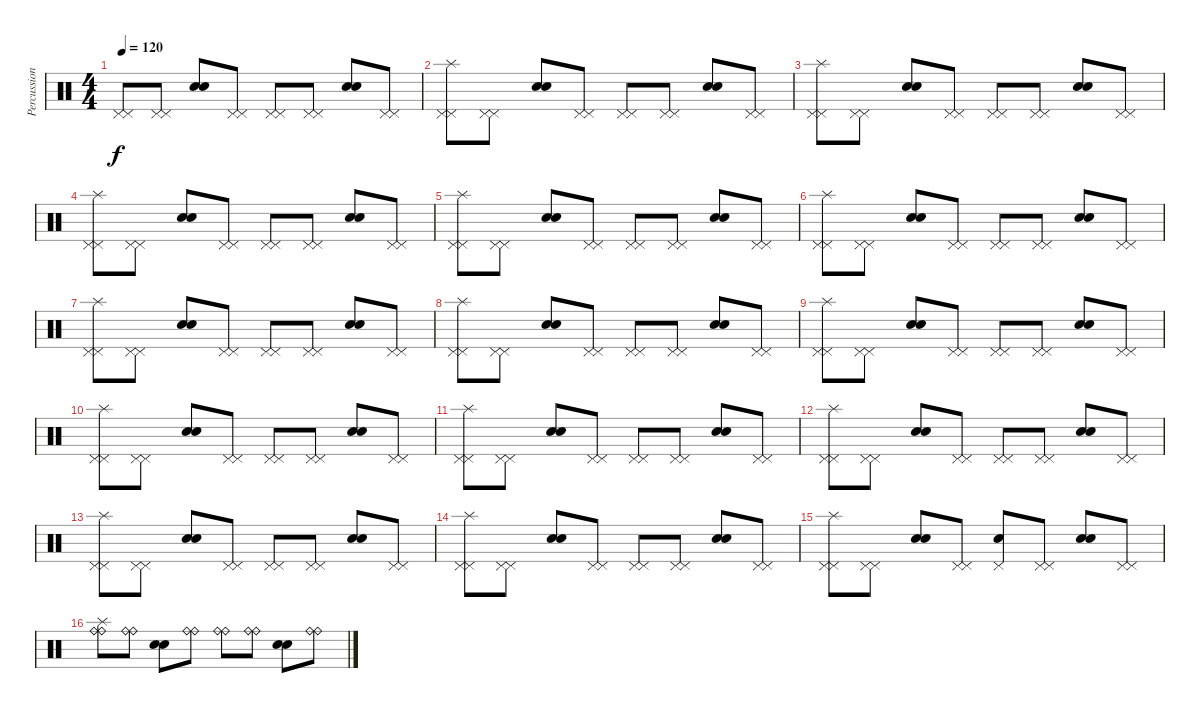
\track ("Percussioni" "Percussion") {instrument percussion}
\staff {score}
\articulation defaults
\ts (4 4)
\tempo 120
\clef neutral
\ks c
("Pedal Hi-Hat (hit)" "Pedal Hi-Hat (hit)").8{dy f} ("Pedal Hi-Hat (hit)" "Pedal Hi-Hat (hit)").8 ("Snare (hit) 2" "Snare (hit) 2").8 ("Pedal Hi-Hat (hit)" "Pedal Hi-Hat (hit)").8 ("Pedal Hi-Hat (hit)" "Pedal Hi-Hat (hit)").8 ("Pedal Hi-Hat (hit)" "Pedal Hi-Hat (hit)").8 ("Snare (hit) 2" "Snare (hit) 2").8 ("Pedal Hi-Hat (hit)" "Pedal Hi-Hat (hit)").8 |
("Splash (hit)" "Pedal Hi-Hat (hit)" "Pedal Hi-Hat (hit)").8 ("Pedal Hi-Hat (hit)" "Pedal Hi-Hat (hit)").8 ("Snare (hit) 2" "Snare (hit) 2").8 ("Pedal Hi-Hat (hit)" "Pedal Hi-Hat (hit)").8 ("Pedal Hi-Hat (hit)" "Pedal Hi-Hat (hit)").8 ("Pedal Hi-Hat (hit)" "Pedal Hi-Hat (hit)").8 ("Snare (hit) 2" "Snare (hit) 2").8 ("Pedal Hi-Hat (hit)" "Pedal Hi-Hat (hit)").8 |
("Splash (hit)" "Pedal Hi-Hat (hit)" "Pedal Hi-Hat (hit)").8 ("Pedal Hi-Hat (hit)" "Pedal Hi-Hat (hit)").8 ("Snare (hit) 2" "Snare (hit) 2").8 ("Pedal Hi-Hat (hit)" "Pedal Hi-Hat (hit)").8 ("Pedal Hi-Hat (hit)" "Pedal Hi-Hat (hit)").8 ("Pedal Hi-Hat (hit)" "Pedal Hi-Hat (hit)").8 ("Snare (hit) 2" "Snare (hit) 2").8 ("Pedal Hi-Hat (hit)" "Pedal Hi-Hat (hit)").8 |
("Splash (hit)" "Pedal Hi-Hat (hit)" "Pedal Hi-Hat (hit)").8 ("Pedal Hi-Hat (hit)" "Pedal Hi-Hat (hit)").8 ("Snare (hit) 2" "Snare (hit) 2").8 ("Pedal Hi-Hat (hit)" "Pedal Hi-Hat (hit)").8 ("Pedal Hi-Hat (hit)" "Pedal Hi-Hat (hit)").8 ("Pedal Hi-Hat (hit)" "Pedal Hi-Hat (hit)").8 ("Snare (hit) 2" "Snare (hit) 2").8 ("Pedal Hi-Hat (hit)" "Pedal Hi-Hat (hit)").8 |
("Splash (hit)" "Pedal Hi-Hat (hit)" "Pedal Hi-Hat (hit)").8 ("Pedal Hi-Hat (hit)" "Pedal Hi-Hat (hit)").8 ("Snare (hit) 2" "Snare (hit) 2").8 ("Pedal Hi-Hat (hit)" "Pedal Hi-Hat (hit)").8 ("Pedal Hi-Hat (hit)" "Pedal Hi-Hat (hit)").8 ("Pedal Hi-Hat (hit)" "Pedal Hi-Hat (hit)").8 ("Snare (hit) 2" "Snare (hit) 2").8 ("Pedal Hi-Hat (hit)" "Pedal Hi-Hat (hit)").8 |
("Splash (hit)" "Pedal Hi-Hat (hit)" "Pedal Hi-Hat (hit)").8 ("Pedal Hi-Hat (hit)" "Pedal Hi-Hat (hit)").8 ("Snare (hit) 2" "Snare (hit) 2").8 ("Pedal Hi-Hat (hit)" "Pedal Hi-Hat (hit)").8 ("Pedal Hi-Hat (hit)" "Pedal Hi-Hat (hit)").8 ("Pedal Hi-Hat (hit)" "Pedal Hi-Hat (hit)").8 ("Snare (hit) 2" "Snare (hit) 2").8 ("Pedal Hi-Hat (hit)" "Pedal Hi-Hat (hit)").8 |
("Splash (hit)" "Pedal Hi-Hat (hit)" "Pedal Hi-Hat (hit)").8 ("Pedal Hi-Hat (hit)" "Pedal Hi-Hat (hit)").8 ("Snare (hit) 2" "Snare (hit) 2").8 ("Pedal Hi-Hat (hit)" "Pedal Hi-Hat (hit)").8 ("Pedal Hi-Hat (hit)" "Pedal Hi-Hat (hit)").8 ("Pedal Hi-Hat (hit)" "Pedal Hi-Hat (hit)").8 ("Snare (hit) 2" "Snare (hit) 2").8 ("Pedal Hi-Hat (hit)" "Pedal Hi-Hat (hit)").8 |
("Splash (hit)" "Pedal Hi-Hat (hit)" "Pedal Hi-Hat (hit)").8 ("Pedal Hi-Hat (hit)" "Pedal Hi-Hat (hit)").8 ("Snare (hit) 2" "Snare (hit) 2").8 ("Pedal Hi-Hat (hit)" "Pedal Hi-Hat (hit)").8 ("Pedal Hi-Hat (hit)" "Pedal Hi-Hat (hit)").8 ("Pedal Hi-Hat (hit)" "Pedal Hi-Hat (hit)").8 ("Snare (hit) 2" "Snare (hit) 2").8 ("Pedal Hi-Hat (hit)" "Pedal Hi-Hat (hit)").8 |
("Splash (hit)" "Pedal Hi-Hat (hit)" "Pedal Hi-Hat (hit)").8 ("Pedal Hi-Hat (hit)" "Pedal Hi-Hat (hit)").8 ("Snare (hit) 2" "Snare (hit) 2").8 ("Pedal Hi-Hat (hit)" "Pedal Hi-Hat (hit)").8 ("Pedal Hi-Hat (hit)" "Pedal Hi-Hat (hit)").8 ("Pedal Hi-Hat (hit)" "Pedal Hi-Hat (hit)").8 ("Snare (hit) 2" "Snare (hit) 2").8 ("Pedal Hi-Hat (hit)" "Pedal Hi-Hat (hit)").8 |
("Splash (hit)" "Pedal Hi-Hat (hit)" "Pedal Hi-Hat (hit)").8 ("Pedal Hi-Hat (hit)" "Pedal Hi-Hat (hit)").8 ("Snare (hit) 2" "Snare (hit) 2").8 ("Pedal Hi-Hat (hit)" "Pedal Hi-Hat (hit)").8 ("Pedal Hi-Hat (hit)" "Pedal Hi-Hat (hit)").8 ("Pedal Hi-Hat (hit)" "Pedal Hi-Hat (hit)").8 ("Snare (hit) 2" "Snare (hit) 2").8 ("Pedal Hi-Hat (hit)" "Pedal Hi-Hat (hit)").8 |
("Splash (hit)" "Pedal Hi-Hat (hit)" "Pedal Hi-Hat (hit)").8 ("Pedal Hi-Hat (hit)" "Pedal Hi-Hat (hit)").8 ("Snare (hit) 2" "Snare (hit) 2").8 ("Pedal Hi-Hat (hit)" "Pedal Hi-Hat (hit)").8 ("Pedal Hi-Hat (hit)" "Pedal Hi-Hat (hit)").8 ("Pedal Hi-Hat (hit)" "Pedal Hi-Hat (hit)").8 ("Snare (hit) 2" "Snare (hit) 2").8 ("Pedal Hi-Hat (hit)" "Pedal Hi-Hat (hit)").8 |
("Splash (hit)" "Pedal Hi-Hat (hit)" "Pedal Hi-Hat (hit)").8 ("Pedal Hi-Hat (hit)" "Pedal Hi-Hat (hit)").8 ("Snare (hit) 2" "Snare (hit) 2").8 ("Pedal Hi-Hat (hit)" "Pedal Hi-Hat (hit)").8 ("Pedal Hi-Hat (hit)" "Pedal Hi-Hat (hit)").8 ("Pedal Hi-Hat (hit)" "Pedal Hi-Hat (hit)").8 ("Snare (hit) 2" "Snare (hit) 2").8 ("Pedal Hi-Hat (hit)" "Pedal Hi-Hat (hit)").8 |
("Splash (hit)" "Pedal Hi-Hat (hit)" "Pedal Hi-Hat (hit)").8 ("Pedal Hi-Hat (hit)" "Pedal Hi-Hat (hit)").8 ("Snare (hit) 2" "Snare (hit) 2").8 ("Pedal Hi-Hat (hit)" "Pedal Hi-Hat (hit)").8 ("Pedal Hi-Hat (hit)" "Pedal Hi-Hat (hit)").8 ("Pedal Hi-Hat (hit)" "Pedal Hi-Hat (hit)").8 ("Snare (hit) 2" "Snare (hit) 2").8 ("Pedal Hi-Hat (hit)" "Pedal Hi-Hat (hit)").8 |
("Splash (hit)" "Pedal Hi-Hat (hit)" "Pedal Hi-Hat (hit)").8 ("Pedal Hi-Hat (hit)" "Pedal Hi-Hat (hit)").8 ("Snare (hit) 2" "Snare (hit) 2").8 ("Pedal Hi-Hat (hit)" "Pedal Hi-Hat (hit)").8 ("Pedal Hi-Hat (hit)" "Pedal Hi-Hat (hit)").8 ("Pedal Hi-Hat (hit)" "Pedal Hi-Hat (hit)").8 ("Snare (hit) 2" "Snare (hit) 2").8 ("Pedal Hi-Hat (hit)" "Pedal Hi-Hat (hit)").8 |
("Splash (hit)" "Pedal Hi-Hat (hit)" "Pedal Hi-Hat (hit)").8 ("Pedal Hi-Hat (hit)" "Pedal Hi-Hat (hit)").8 ("Snare (hit) 2" "Snare (hit) 2").8 ("Pedal Hi-Hat (hit)" "Pedal Hi-Hat (hit)").8 ("Snare (hit) 2" "Pedal Hi-Hat (hit)").8 ("Pedal Hi-Hat (hit)" "Pedal Hi-Hat (hit)").8 ("Snare (hit) 2" "Snare (hit) 2").8 ("Pedal Hi-Hat (hit)" "Pedal Hi-Hat (hit)").8 |
("Splash (hit)" "Ride (bell)" "Ride (bell)").8 ("Ride (bell)" "Ride (bell)").8 ("Snare (hit) 2" "Snare (hit) 2").8 ("Ride (bell)" "Ride (bell)").8 ("Ride (bell)" "Ride (bell)").8 ("Ride (bell)" "Ride (bell)").8 ("Snare (hit) 2" "Snare (hit) 2").8 ("Ride (bell)" "Ride (bell)").8
